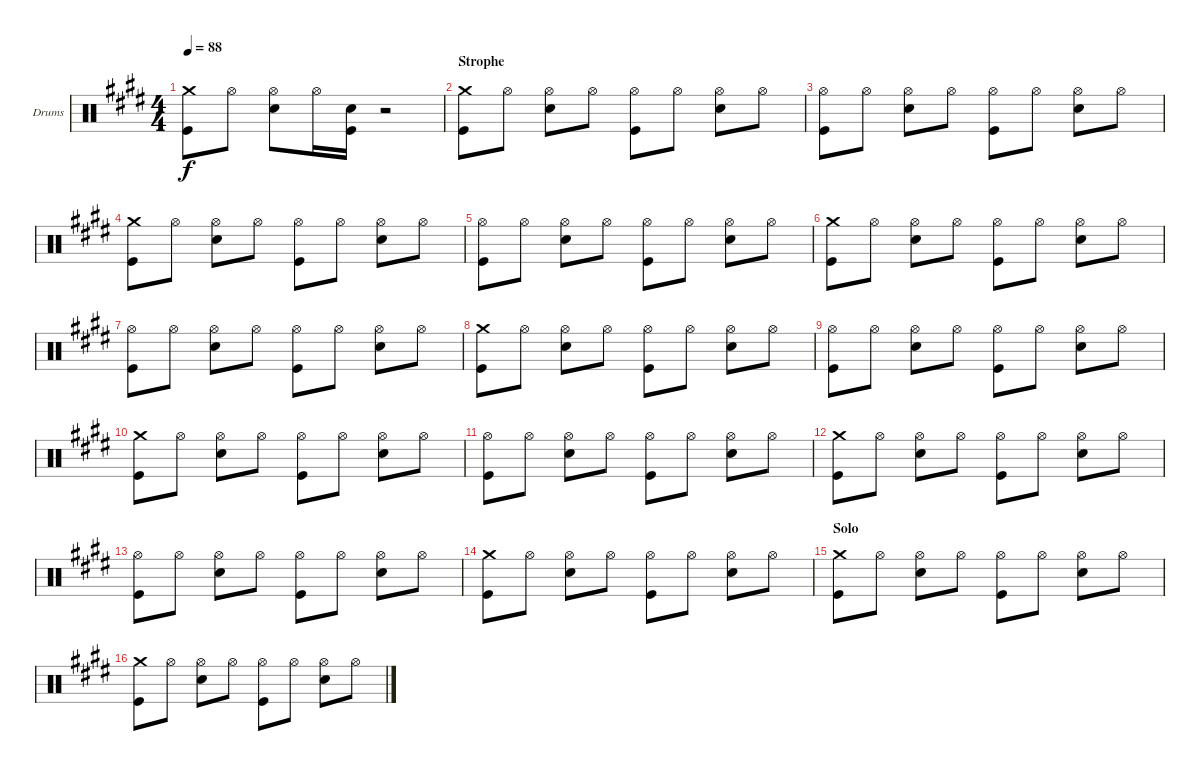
\defaultSystemsLayout 4
\bracketExtendMode groupsimilarinstruments
\firstSystemTrackNameOrientation horizontal
\otherSystemsTrackNameOrientation horizontal
\track ("Drumkit" "Drums") {instrument percussion}
\staff {score}
\articulation defaults
\ts (4 4)
\tempo 88
\clef neutral
\ks e
("Kick (hit)" "Crash medium (hit)").8{dy f} "Hi-Hat (open)".8 ("Hi-Hat (open)" "Snare (hit) 2").8 "Hi-Hat (open)".16 ("Kick (hit)" "Snare (hit) 2").16 r.2 |
\section ("" "Strophe")
("Kick (hit)" "Crash medium (hit)").8 "Hi-Hat (open)".8 ("Hi-Hat (open)" "Snare (hit) 2").8 "Hi-Hat (open)".8 ("Kick (hit)" "Hi-Hat (open)").8 "Hi-Hat (open)".8 ("Hi-Hat (open)" "Snare (hit) 2").8 "Hi-Hat (open)".8 |
("Kick (hit)" "Hi-Hat (open)").8 "Hi-Hat (open)".8 ("Hi-Hat (open)" "Snare (hit) 2").8 "Hi-Hat (open)".8 ("Kick (hit)" "Hi-Hat (open)").8 "Hi-Hat (open)".8 ("Hi-Hat (open)" "Snare (hit) 2").8 "Hi-Hat (open)".8 |
("Kick (hit)" "Crash medium (hit)").8 "Hi-Hat (open)".8 ("Hi-Hat (open)" "Snare (hit) 2").8 "Hi-Hat (open)".8 ("Kick (hit)" "Hi-Hat (open)").8 "Hi-Hat (open)".8 ("Hi-Hat (open)" "Snare (hit) 2").8 "Hi-Hat (open)".8 |
("Kick (hit)" "Hi-Hat (open)").8 "Hi-Hat (open)".8 ("Hi-Hat (open)" "Snare (hit) 2").8 "Hi-Hat (open)".8 ("Kick (hit)" "Hi-Hat (open)").8 "Hi-Hat (open)".8 ("Hi-Hat (open)" "Snare (hit) 2").8 "Hi-Hat (open)".8 |
("Kick (hit)" "Crash medium (hit)").8 "Hi-Hat (open)".8 ("Hi-Hat (open)" "Snare (hit) 2").8 "Hi-Hat (open)".8 ("Kick (hit)" "Hi-Hat (open)").8 "Hi-Hat (open)".8 ("Hi-Hat (open)" "Snare (hit) 2").8 "Hi-Hat (open)".8 |
("Kick (hit)" "Hi-Hat (open)").8 "Hi-Hat (open)".8 ("Hi-Hat (open)" "Snare (hit) 2").8 "Hi-Hat (open)".8 ("Kick (hit)" "Hi-Hat (open)").8 "Hi-Hat (open)".8 ("Hi-Hat (open)" "Snare (hit) 2").8 "Hi-Hat (open)".8 |
("Kick (hit)" "Crash medium (hit)").8 "Hi-Hat (open)".8 ("Hi-Hat (open)" "Snare (hit) 2").8 "Hi-Hat (open)".8 ("Kick (hit)" "Hi-Hat (open)").8 "Hi-Hat (open)".8 ("Hi-Hat (open)" "Snare (hit) 2").8 "Hi-Hat (open)".8 |
("Kick (hit)" "Hi-Hat (open)").8 "Hi-Hat (open)".8 ("Hi-Hat (open)" "Snare (hit) 2").8 "Hi-Hat (open)".8 ("Kick (hit)" "Hi-Hat (open)").8 "Hi-Hat (open)".8 ("Hi-Hat (open)" "Snare (hit) 2").8 "Hi-Hat (open)".8 |
("Kick (hit)" "Crash medium (hit)").8 "Hi-Hat (open)".8 ("Hi-Hat (open)" "Snare (hit) 2").8 "Hi-Hat (open)".8 ("Kick (hit)" "Hi-Hat (open)").8 "Hi-Hat (open)".8 ("Hi-Hat (open)" "Snare (hit) 2").8 "Hi-Hat (open)".8 |
("Kick (hit)" "Hi-Hat (open)").8 "Hi-Hat (open)".8 ("Hi-Hat (open)" "Snare (hit) 2").8 "Hi-Hat (open)".8 ("Kick (hit)" "Hi-Hat (open)").8 "Hi-Hat (open)".8 ("Hi-Hat (open)" "Snare (hit) 2").8 "Hi-Hat (open)".8 |
("Kick (hit)" "Crash medium (hit)").8 "Hi-Hat (open)".8 ("Hi-Hat (open)" "Snare (hit) 2").8 "Hi-Hat (open)".8 ("Kick (hit)" "Hi-Hat (open)").8 "Hi-Hat (open)".8 ("Hi-Hat (open)" "Snare (hit) 2").8 "Hi-Hat (open)".8 |
("Kick (hit)" "Hi-Hat (open)").8 "Hi-Hat (open)".8 ("Hi-Hat (open)" "Snare (hit) 2").8 "Hi-Hat (open)".8 ("Kick (hit)" "Hi-Hat (open)").8 "Hi-Hat (open)".8 ("Hi-Hat (open)" "Snare (hit) 2").8 "Hi-Hat (open)".8 |
("Kick (hit)" "Crash medium (hit)").8 "Hi-Hat (open)".8 ("Hi-Hat (open)" "Snare (hit) 2").8 "Hi-Hat (open)".8 ("Kick (hit)" "Hi-Hat (open)").8 "Hi-Hat (open)".8 ("Hi-Hat (open)" "Snare (hit) 2").8 "Hi-Hat (open)".8 |
\section ("" "Solo")
("Kick (hit)" "Crash medium (hit)").8 "Hi-Hat (open)".8 ("Hi-Hat (open)" "Snare (hit) 2").8 "Hi-Hat (open)".8 ("Kick (hit)" "Hi-Hat (open)").8 "Hi-Hat (open)".8 ("Hi-Hat (open)" "Snare (hit) 2").8 "Hi-Hat (open)".8 |
("Kick (hit)" "Crash medium (hit)").8 "Hi-Hat (open)".8 ("Hi-Hat (open)" "Snare (hit) 2").8 "Hi-Hat (open)".8 ("Kick (hit)" "Hi-Hat (open)").8 "Hi-Hat (open)".8 ("Hi-Hat (open)" "Snare (hit) 2").8 "Hi-Hat (open)".8
